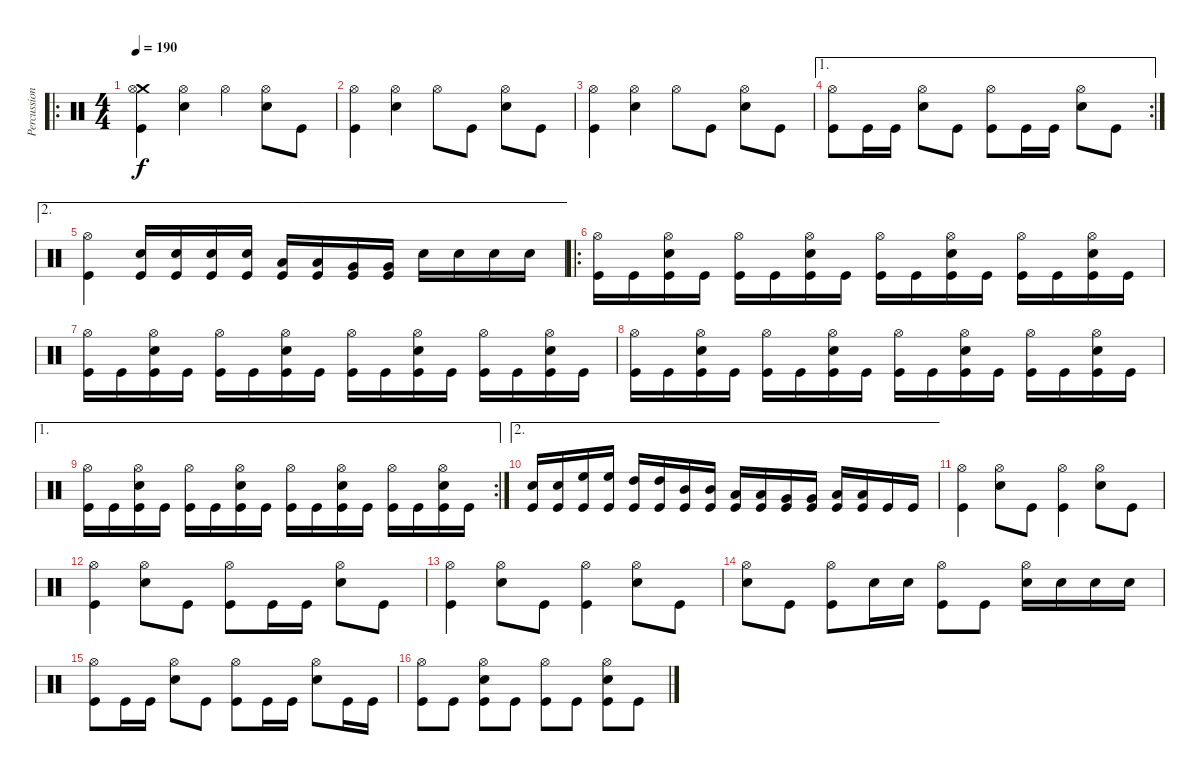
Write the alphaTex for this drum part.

\track ("Percussions" "Percussion") {instrument percussion}
\staff {score}
\articulation defaults
\ro
\ts (4 4)
\tempo 190
\clef neutral
\ks c
("Crash medium (hit)" "Hi-Hat (open)" "Kick (hit)").4{dy f} ("Hi-Hat (open)" "Snare (hit) 2").4 "Hi-Hat (open)".4 ("Hi-Hat (open)" "Snare (hit) 2").8 "Kick (hit)".8 |
("Hi-Hat (open)" "Kick (hit)").4 ("Hi-Hat (open)" "Snare (hit) 2").4 "Hi-Hat (open)".8 "Kick (hit)".8 ("Hi-Hat (open)" "Snare (hit) 2").8 "Kick (hit)".8 |
("Hi-Hat (open)" "Kick (hit)").4 ("Hi-Hat (open)" "Snare (hit) 2").4 "Hi-Hat (open)".8 "Kick (hit)".8 ("Hi-Hat (open)" "Snare (hit) 2").8 "Kick (hit)".8 |
\ae 1
\rc 2
("Hi-Hat (open)" "Kick (hit)").8 "Kick (hit)".16 "Kick (hit)".16 ("Hi-Hat (open)" "Snare (hit) 2").8 "Kick (hit)".8 ("Hi-Hat (open)" "Kick (hit)").8 "Kick (hit)".16 "Kick (hit)".16 ("Hi-Hat (open)" "Snare (hit) 2").8 "Kick (hit)".8 |
\ae 2
("Hi-Hat (open)" "Kick (hit)").4 ("Snare (hit) 2" "Kick (hit)").16 ("Snare (hit) 2" "Kick (hit)").16 ("Snare (hit) 2" "Kick (hit)").16 ("Snare (hit) 2" "Kick (hit)").16 ("Low Tom (hit)" "Kick (hit)").16 ("Low Tom (hit)" "Kick (hit)").16 ("Very Low Tom (hit)" "Kick (hit)").16 ("Very Low Tom (hit)" "Kick (hit)").16 "Snare (hit) 2".16 "Snare (hit) 2".16 "Snare (hit) 2".16 "Snare (hit) 2".16 |
\ro
("Hi-Hat (open)" "Kick (hit)").16 "Kick (hit)".16 ("Hi-Hat (open)" "Snare (hit) 2" "Kick (hit)").16 "Kick (hit)".16 ("Hi-Hat (open)" "Kick (hit)").16 "Kick (hit)".16 ("Hi-Hat (open)" "Snare (hit) 2" "Kick (hit)").16 "Kick (hit)".16 ("Hi-Hat (open)" "Kick (hit)").16 "Kick (hit)".16 ("Hi-Hat (open)" "Snare (hit) 2" "Kick (hit)").16 "Kick (hit)".16 ("Hi-Hat (open)" "Kick (hit)").16 "Kick (hit)".16 ("Hi-Hat (open)" "Snare (hit) 2" "Kick (hit)").16 "Kick (hit)".16 |
("Hi-Hat (open)" "Kick (hit)").16 "Kick (hit)".16 ("Hi-Hat (open)" "Snare (hit) 2" "Kick (hit)").16 "Kick (hit)".16 ("Hi-Hat (open)" "Kick (hit)").16 "Kick (hit)".16 ("Hi-Hat (open)" "Snare (hit) 2" "Kick (hit)").16 "Kick (hit)".16 ("Hi-Hat (open)" "Kick (hit)").16 "Kick (hit)".16 ("Hi-Hat (open)" "Snare (hit) 2" "Kick (hit)").16 "Kick (hit)".16 ("Hi-Hat (open)" "Kick (hit)").16 "Kick (hit)".16 ("Hi-Hat (open)" "Snare (hit) 2" "Kick (hit)").16 "Kick (hit)".16 |
("Hi-Hat (open)" "Kick (hit)").16 "Kick (hit)".16 ("Hi-Hat (open)" "Snare (hit) 2" "Kick (hit)").16 "Kick (hit)".16 ("Hi-Hat (open)" "Kick (hit)").16 "Kick (hit)".16 ("Hi-Hat (open)" "Snare (hit) 2" "Kick (hit)").16 "Kick (hit)".16 ("Hi-Hat (open)" "Kick (hit)").16 "Kick (hit)".16 ("Hi-Hat (open)" "Snare (hit) 2" "Kick (hit)").16 "Kick (hit)".16 ("Hi-Hat (open)" "Kick (hit)").16 "Kick (hit)".16 ("Hi-Hat (open)" "Snare (hit) 2" "Kick (hit)").16 "Kick (hit)".16 |
\ae 1
\rc 2
("Hi-Hat (open)" "Kick (hit)").16 "Kick (hit)".16 ("Hi-Hat (open)" "Snare (hit) 2" "Kick (hit)").16 "Kick (hit)".16 ("Hi-Hat (open)" "Kick (hit)").16 "Kick (hit)".16 ("Hi-Hat (open)" "Snare (hit) 2" "Kick (hit)").16 "Kick (hit)".16 ("Hi-Hat (open)" "Kick (hit)").16 "Kick (hit)".16 ("Hi-Hat (open)" "Snare (hit) 2" "Kick (hit)").16 "Kick (hit)".16 ("Hi-Hat (open)" "Kick (hit)").16 "Kick (hit)".16 ("Hi-Hat (open)" "Snare (hit) 2" "Kick (hit)").16 "Kick (hit)".16 |
\ae 2
("Snare (hit) 2" "Kick (hit)").16 ("Snare (hit) 2" "Kick (hit)").16 ("High Floor Tom (hit)" "Kick (hit)").16 ("High Floor Tom (hit)" "Kick (hit)").16 ("High Tom (hit)" "Kick (hit)").16 ("High Tom (hit)" "Kick (hit)").16 ("Mid Tom (hit)" "Kick (hit)").16 ("Mid Tom (hit)" "Kick (hit)").16 ("Low Tom (hit)" "Kick (hit)").16 ("Low Tom (hit)" "Kick (hit)").16 ("Very Low Tom (hit)" "Kick (hit)").16 ("Very Low Tom (hit)" "Kick (hit)").16 ("Low Floor Tom (hit)" "Kick (hit)").16 ("Low Floor Tom (hit)" "Kick (hit)").16 "Kick (hit)".16 "Kick (hit)".16 |
("Hi-Hat (open)" "Kick (hit)").4 ("Hi-Hat (open)" "Snare (hit) 2").8 "Kick (hit)".8 ("Hi-Hat (open)" "Kick (hit)").4 ("Hi-Hat (open)" "Snare (hit) 2").8 "Kick (hit)".8 |
("Hi-Hat (open)" "Kick (hit)").4 ("Hi-Hat (open)" "Snare (hit) 2").8 "Kick (hit)".8 ("Hi-Hat (open)" "Kick (hit)").8 "Kick (hit)".16 "Kick (hit)".16 ("Hi-Hat (open)" "Snare (hit) 2").8 "Kick (hit)".8 |
("Hi-Hat (open)" "Kick (hit)").4 ("Hi-Hat (open)" "Snare (hit) 2").8 "Kick (hit)".8 ("Hi-Hat (open)" "Kick (hit)").4 ("Hi-Hat (open)" "Snare (hit) 2").8 "Kick (hit)".8 |
("Hi-Hat (open)" "Snare (hit) 2").8 "Kick (hit)".8 ("Hi-Hat (open)" "Kick (hit)").8 "Snare (hit) 2".16 "Snare (hit) 2".16 ("Hi-Hat (open)" "Kick (hit)").8 "Kick (hit)".8 ("Hi-Hat (open)" "Snare (hit) 2").16 "Snare (hit) 2".16 "Snare (hit) 2".16 "Snare (hit) 2".16 |
("Hi-Hat (open)" "Kick (hit)").8 "Kick (hit)".16 "Kick (hit)".16 ("Hi-Hat (open)" "Snare (hit) 2").8 "Kick (hit)".8 ("Hi-Hat (open)" "Kick (hit)").8 "Kick (hit)".16 "Kick (hit)".16 ("Hi-Hat (open)" "Snare (hit) 2").8 "Kick (hit)".16 "Kick (hit)".16 |
("Hi-Hat (open)" "Kick (hit)").8 "Kick (hit)".8 ("Hi-Hat (open)" "Snare (hit) 2" "Kick (hit)").8 "Kick (hit)".8 ("Hi-Hat (open)" "Kick (hit)").8 "Kick (hit)".8 ("Hi-Hat (open)" "Snare (hit) 2" "Kick (hit)").8 "Kick (hit)".8
